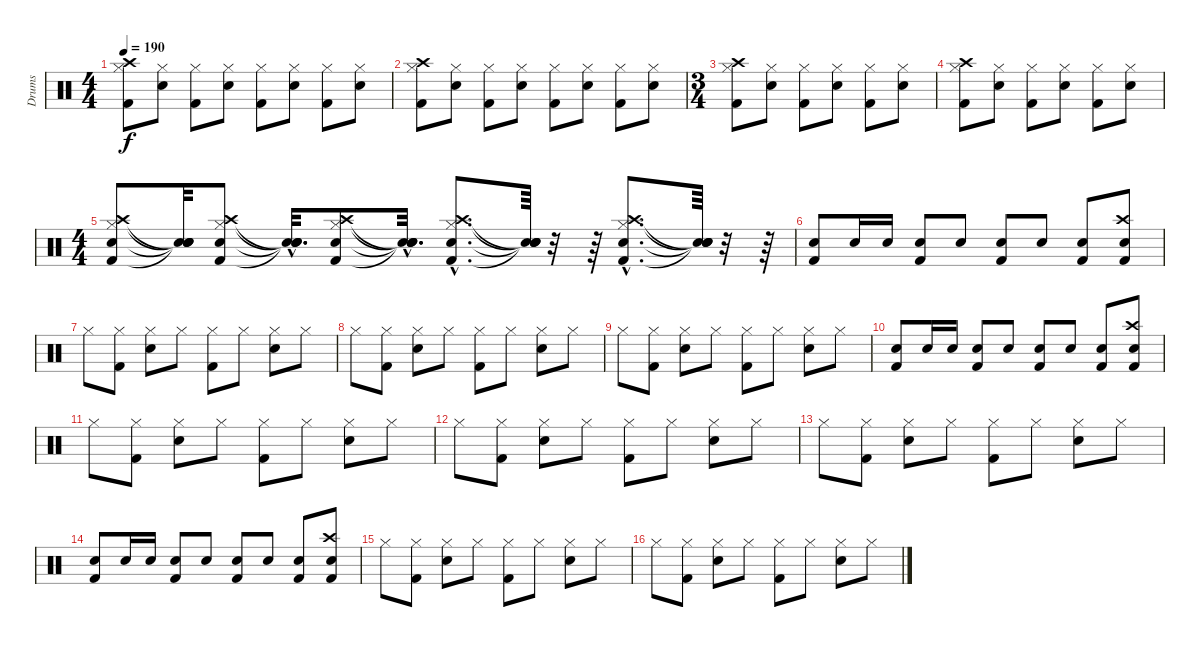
\track ("Drums" "Drums") {instrument percussion}
\staff {score}
\articulation defaults
\ts (4 4)
\tempo 190
\clef neutral
\ks c
("Kick (hit) 2" "Hi-Hat (closed)" "Crash high (hit)").8{dy f} ("Snare (hit) 2" "Hi-Hat (closed)").8 ("Kick (hit) 2" "Hi-Hat (closed)").8 ("Snare (hit) 2" "Hi-Hat (closed)").8 ("Kick (hit) 2" "Hi-Hat (closed)").8 ("Snare (hit) 2" "Hi-Hat (closed)").8 ("Kick (hit) 2" "Hi-Hat (closed)").8 ("Snare (hit) 2" "Hi-Hat (closed)").8 |
("Kick (hit) 2" "Hi-Hat (closed)" "Crash high (hit)").8 ("Snare (hit) 2" "Hi-Hat (closed)").8 ("Kick (hit) 2" "Hi-Hat (closed)").8 ("Snare (hit) 2" "Hi-Hat (closed)").8 ("Kick (hit) 2" "Hi-Hat (closed)").8 ("Snare (hit) 2" "Hi-Hat (closed)").8 ("Kick (hit) 2" "Hi-Hat (closed)").8 ("Snare (hit) 2" "Hi-Hat (closed)").8 |
\ts (3 4)
("Kick (hit) 2" "Hi-Hat (closed)" "Crash high (hit)").8 ("Snare (hit) 2" "Hi-Hat (closed)").8 ("Kick (hit) 2" "Hi-Hat (closed)").8 ("Snare (hit) 2" "Hi-Hat (closed)").8 ("Kick (hit) 2" "Hi-Hat (closed)").8 ("Snare (hit) 2" "Hi-Hat (closed)").8 |
("Kick (hit) 2" "Hi-Hat (closed)" "Crash high (hit)").8 ("Snare (hit) 2" "Hi-Hat (closed)").8 ("Kick (hit) 2" "Hi-Hat (closed)").8 ("Snare (hit) 2" "Hi-Hat (closed)").8 ("Kick (hit) 2" "Hi-Hat (closed)").8 ("Snare (hit) 2" "Hi-Hat (closed)").8 |
\ts (4 4)
("Kick (hit) 2" "Snare (hit) 2" "Hi-Hat (closed)" "Crash high (hit)").8 ("Snare (hit)"{t} "Snare (hit)"{t} "Snare (hit)"{t} "Snare (hit)"{t}).32 ("Kick (hit) 2" "Snare (hit) 2" "Hi-Hat (closed)" "Crash high (hit)").8 ("Snare (hit)"{hac t} "Snare (hit)"{hac t} "Snare (hit)"{hac t} "Snare (hit)"{hac t}).32{d} ("Kick (hit) 2" "Snare (hit) 2" "Hi-Hat (closed)" "Crash high (hit)").8 ("Snare (hit)"{hac t} "Snare (hit)"{hac t} "Snare (hit)"{hac t} "Snare (hit)"{hac t}).32{d} ("Kick (hit) 2"{hac} "Snare (hit) 2"{hac} "Hi-Hat (closed)"{hac} "Crash high (hit)"{hac}).8{d} ("Snare (hit)"{t} "Snare (hit)"{t} "Snare (hit)"{t} "Snare (hit)"{t}).64 r.32 r.64 ("Kick (hit) 2"{hac} "Snare (hit) 2"{hac} "Hi-Hat (closed)"{hac} "Crash high (hit)"{hac}).8{d} ("Snare (hit)"{t} "Snare (hit)"{t} "Snare (hit)"{t} "Snare (hit)"{t}).64 r.32 r.64 |
("Kick (hit) 2" "Snare (hit) 2").8 "Snare (hit) 2".16 "Snare (hit) 2".16 ("Kick (hit) 2" "Snare (hit) 2").8 "Snare (hit) 2".8 ("Kick (hit) 2" "Snare (hit) 2").8 "Snare (hit) 2".8 ("Kick (hit) 2" "Snare (hit) 2").8 ("Kick (hit) 2" "Snare (hit) 2" "Crash high (hit)").8 |
"Hi-Hat (closed)".8 ("Kick (hit) 2" "Hi-Hat (closed)").8 ("Snare (hit) 2" "Hi-Hat (closed)").8 "Hi-Hat (closed)".8 ("Kick (hit) 2" "Hi-Hat (closed)").8 "Hi-Hat (closed)".8 ("Snare (hit) 2" "Hi-Hat (closed)").8 "Hi-Hat (closed)".8 |
"Hi-Hat (closed)".8 ("Kick (hit) 2" "Hi-Hat (closed)").8 ("Snare (hit) 2" "Hi-Hat (closed)").8 "Hi-Hat (closed)".8 ("Kick (hit) 2" "Hi-Hat (closed)").8 "Hi-Hat (closed)".8 ("Snare (hit) 2" "Hi-Hat (closed)").8 "Hi-Hat (closed)".8 |
"Hi-Hat (closed)".8 ("Kick (hit) 2" "Hi-Hat (closed)").8 ("Snare (hit) 2" "Hi-Hat (closed)").8 "Hi-Hat (closed)".8 ("Kick (hit) 2" "Hi-Hat (closed)").8 "Hi-Hat (closed)".8 ("Snare (hit) 2" "Hi-Hat (closed)").8 "Hi-Hat (closed)".8 |
("Kick (hit) 2" "Snare (hit) 2").8 "Snare (hit) 2".16 "Snare (hit) 2".16 ("Kick (hit) 2" "Snare (hit) 2").8 "Snare (hit) 2".8 ("Kick (hit) 2" "Snare (hit) 2").8 "Snare (hit) 2".8 ("Kick (hit) 2" "Snare (hit) 2").8 ("Kick (hit) 2" "Snare (hit) 2" "Crash high (hit)").8 |
"Hi-Hat (closed)".8 ("Kick (hit) 2" "Hi-Hat (closed)").8 ("Snare (hit) 2" "Hi-Hat (closed)").8 "Hi-Hat (closed)".8 ("Kick (hit) 2" "Hi-Hat (closed)").8 "Hi-Hat (closed)".8 ("Snare (hit) 2" "Hi-Hat (closed)").8 "Hi-Hat (closed)".8 |
"Hi-Hat (closed)".8 ("Kick (hit) 2" "Hi-Hat (closed)").8 ("Snare (hit) 2" "Hi-Hat (closed)").8 "Hi-Hat (closed)".8 ("Kick (hit) 2" "Hi-Hat (closed)").8 "Hi-Hat (closed)".8 ("Snare (hit) 2" "Hi-Hat (closed)").8 "Hi-Hat (closed)".8 |
"Hi-Hat (closed)".8 ("Kick (hit) 2" "Hi-Hat (closed)").8 ("Snare (hit) 2" "Hi-Hat (closed)").8 "Hi-Hat (closed)".8 ("Kick (hit) 2" "Hi-Hat (closed)").8 "Hi-Hat (closed)".8 ("Snare (hit) 2" "Hi-Hat (closed)").8 "Hi-Hat (closed)".8 |
("Kick (hit) 2" "Snare (hit) 2").8 "Snare (hit) 2".16 "Snare (hit) 2".16 ("Kick (hit) 2" "Snare (hit) 2").8 "Snare (hit) 2".8 ("Kick (hit) 2" "Snare (hit) 2").8 "Snare (hit) 2".8 ("Kick (hit) 2" "Snare (hit) 2").8 ("Kick (hit) 2" "Snare (hit) 2" "Crash high (hit)").8 |
"Hi-Hat (closed)".8 ("Kick (hit) 2" "Hi-Hat (closed)").8 ("Snare (hit) 2" "Hi-Hat (closed)").8 "Hi-Hat (closed)".8 ("Kick (hit) 2" "Hi-Hat (closed)").8 "Hi-Hat (closed)".8 ("Snare (hit) 2" "Hi-Hat (closed)").8 "Hi-Hat (closed)".8 |
"Hi-Hat (closed)".8 ("Kick (hit) 2" "Hi-Hat (closed)").8 ("Snare (hit) 2" "Hi-Hat (closed)").8 "Hi-Hat (closed)".8 ("Kick (hit) 2" "Hi-Hat (closed)").8 "Hi-Hat (closed)".8 ("Snare (hit) 2" "Hi-Hat (closed)").8 "Hi-Hat (closed)".8
